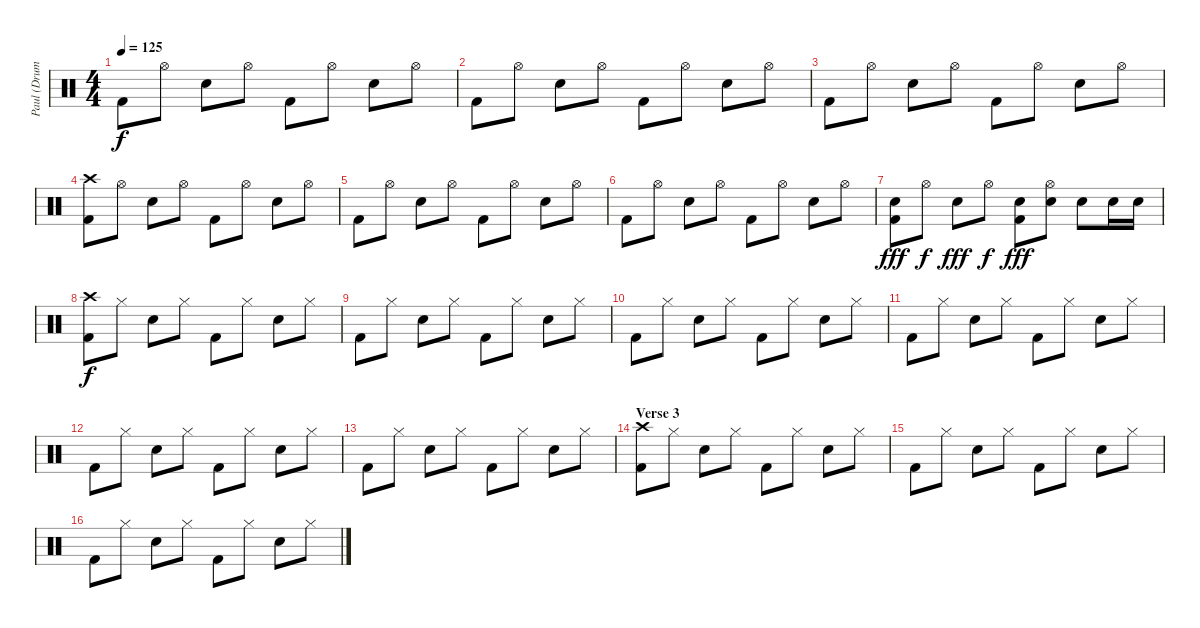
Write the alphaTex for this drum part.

\track ("Paul (Drums)" "Paul (Drum") {instrument percussion}
\staff {score}
\articulation defaults
\ts (4 4)
\tempo 125
\clef neutral
\ks c "Kick (hit) 2".8{dy f} "Hi-Hat (open)".8 "Snare (hit) 2".8 "Hi-Hat (open)".8 "Kick (hit) 2".8 "Hi-Hat (open)".8 "Snare (hit) 2".8 "Hi-Hat (open)".8
|
"Kick (hit) 2".8 "Hi-Hat (open)".8 "Snare (hit) 2".8 "Hi-Hat (open)".8 "Kick (hit) 2".8 "Hi-Hat (open)".8 "Snare (hit) 2".8 "Hi-Hat (open)".8 |
"Kick (hit) 2".8 "Hi-Hat (open)".8 "Snare (hit) 2".8 "Hi-Hat (open)".8 "Kick (hit) 2".8 "Hi-Hat (open)".8 "Snare (hit) 2".8 "Hi-Hat (open)".8 |
("Crash high (hit)" "Kick (hit) 2").8 "Hi-Hat (open)".8 "Snare (hit) 2".8 "Hi-Hat (open)".8 "Kick (hit) 2".8 "Hi-Hat (open)".8 "Snare (hit) 2".8 "Hi-Hat (open)".8 |
"Kick (hit) 2".8 "Hi-Hat (open)".8 "Snare (hit) 2".8 "Hi-Hat (open)".8 "Kick (hit) 2".8 "Hi-Hat (open)".8 "Snare (hit) 2".8 "Hi-Hat (open)".8 |
"Kick (hit) 2".8 "Hi-Hat (open)".8 "Snare (hit) 2".8 "Hi-Hat (open)".8 "Kick (hit) 2".8 "Hi-Hat (open)".8 "Snare (hit) 2".8 "Hi-Hat (open)".8 |
("Snare (hit) 2" "Kick (hit) 2").8{dy fff} "Hi-Hat (open)".8{dy f} "Snare (hit) 2".8{dy fff} "Hi-Hat (open)".8{dy f} ("Snare (hit) 2" "Kick (hit) 2").8{dy fff} ("Hi-Hat (open)" "Snare (hit) 2").8 "Snare (hit) 2".8 "Snare (hit) 2".16 "Snare (hit) 2".16 |
("Crash high (hit)" "Kick (hit) 2").8{dy f} "Hi-Hat (closed)".8 "Snare (hit) 2".8 "Hi-Hat (closed)".8 "Kick (hit) 2".8 "Hi-Hat (closed)".8 "Snare (hit) 2".8 "Hi-Hat (closed)".8 |
"Kick (hit) 2".8 "Hi-Hat (closed)".8 "Snare (hit) 2".8 "Hi-Hat (closed)".8 "Kick (hit) 2".8 "Hi-Hat (closed)".8 "Snare (hit) 2".8 "Hi-Hat (closed)".8 |
"Kick (hit) 2".8 "Hi-Hat (closed)".8 "Snare (hit) 2".8 "Hi-Hat (closed)".8 "Kick (hit) 2".8 "Hi-Hat (closed)".8 "Snare (hit) 2".8 "Hi-Hat (closed)".8 |
"Kick (hit) 2".8 "Hi-Hat (closed)".8 "Snare (hit) 2".8 "Hi-Hat (closed)".8 "Kick (hit) 2".8 "Hi-Hat (closed)".8 "Snare (hit) 2".8 "Hi-Hat (closed)".8 |
"Kick (hit) 2".8 "Hi-Hat (closed)".8 "Snare (hit) 2".8 "Hi-Hat (closed)".8 "Kick (hit) 2".8 "Hi-Hat (closed)".8 "Snare (hit) 2".8 "Hi-Hat (closed)".8 |
"Kick (hit) 2".8 "Hi-Hat (closed)".8 "Snare (hit) 2".8 "Hi-Hat (closed)".8 "Kick (hit) 2".8 "Hi-Hat (closed)".8 "Snare (hit) 2".8 "Hi-Hat (closed)".8 |
\section ("" "Verse 3")
("Crash high (hit)" "Kick (hit) 2").8 "Hi-Hat (closed)".8 "Snare (hit) 2".8 "Hi-Hat (closed)".8 "Kick (hit) 2".8 "Hi-Hat (closed)".8 "Snare (hit) 2".8 "Hi-Hat (closed)".8 |
"Kick (hit) 2".8 "Hi-Hat (closed)".8 "Snare (hit) 2".8 "Hi-Hat (closed)".8 "Kick (hit) 2".8 "Hi-Hat (closed)".8 "Snare (hit) 2".8 "Hi-Hat (closed)".8 |
"Kick (hit) 2".8 "Hi-Hat (closed)".8 "Snare (hit) 2".8 "Hi-Hat (closed)".8 "Kick (hit) 2".8 "Hi-Hat (closed)".8 "Snare (hit) 2".8 "Hi-Hat (closed)".8
